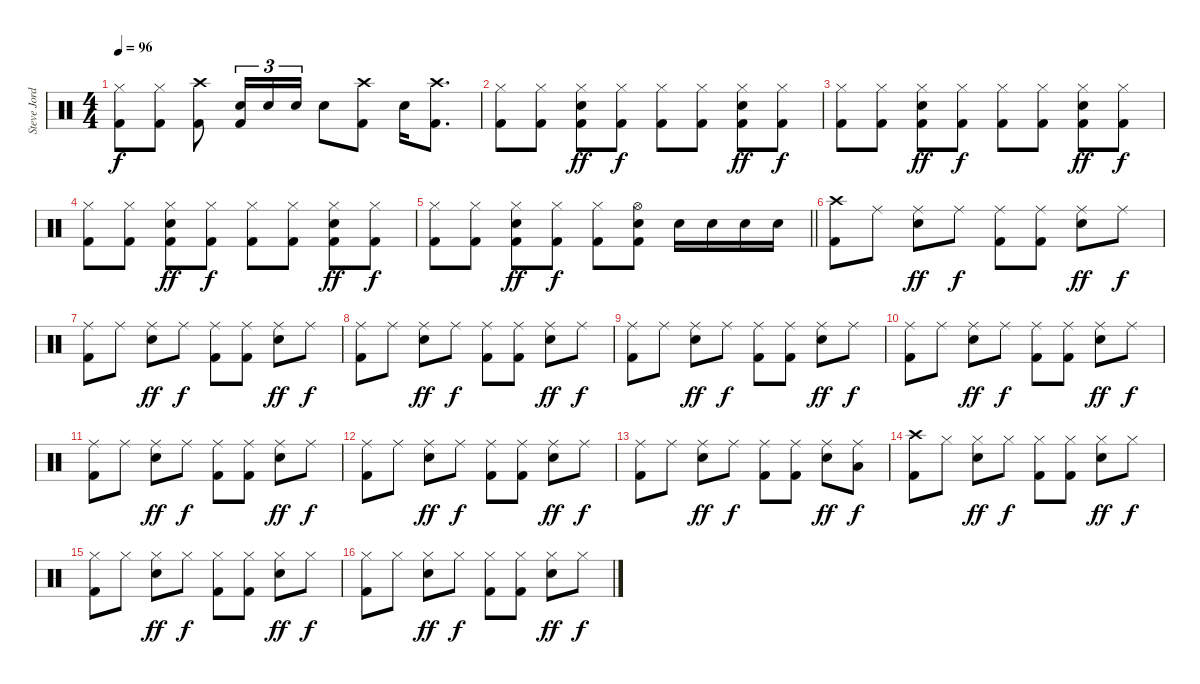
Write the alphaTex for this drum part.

\track ("Steve Jordan" "Steve Jord") {instrument percussion}
\staff {score}
\articulation defaults
\ts (4 4)
\tempo 96
\clef neutral
\ks c
("Hi-Hat (closed)" "Kick (hit) 2").8{dy f} ("Hi-Hat (closed)" "Kick (hit) 2").8 ("Crash high (hit)" "Kick (hit) 2").8 ("Snare (hit) 2" "Kick (hit) 2").16{tu (3 2)} "Snare (hit) 2".16{tu (3 2)} "Snare (hit) 2".16{tu (3 2)} "Snare (hit) 2".8 ("Crash high (hit)" "Kick (hit) 2").8 "Snare (hit) 2".16 ("Crash high (hit)" "Kick (hit) 2").8{d} |
("Hi-Hat (closed)" "Kick (hit) 2").8 ("Hi-Hat (closed)" "Kick (hit) 2").8 ("Hi-Hat (closed)" "Snare (hit) 2" "Kick (hit) 2").8{dy ff} ("Hi-Hat (closed)" "Kick (hit) 2").8{dy f} ("Hi-Hat (closed)" "Kick (hit) 2").8 ("Hi-Hat (closed)" "Kick (hit) 2").8 ("Hi-Hat (closed)" "Snare (hit) 2" "Kick (hit) 2").8{dy ff} ("Hi-Hat (closed)" "Kick (hit) 2").8{dy f} |
("Hi-Hat (closed)" "Kick (hit) 2").8 ("Hi-Hat (closed)" "Kick (hit) 2").8 ("Hi-Hat (closed)" "Snare (hit) 2" "Kick (hit) 2").8{dy ff} ("Hi-Hat (closed)" "Kick (hit) 2").8{dy f} ("Hi-Hat (closed)" "Kick (hit) 2").8 ("Hi-Hat (closed)" "Kick (hit) 2").8 ("Hi-Hat (closed)" "Snare (hit) 2" "Kick (hit) 2").8{dy ff} ("Hi-Hat (closed)" "Kick (hit) 2").8{dy f} |
("Hi-Hat (closed)" "Kick (hit) 2").8 ("Hi-Hat (closed)" "Kick (hit) 2").8 ("Hi-Hat (closed)" "Snare (hit) 2" "Kick (hit) 2").8{dy ff} ("Hi-Hat (closed)" "Kick (hit) 2").8{dy f} ("Hi-Hat (closed)" "Kick (hit) 2").8 ("Hi-Hat (closed)" "Kick (hit) 2").8 ("Hi-Hat (closed)" "Snare (hit) 2" "Kick (hit) 2").8{dy ff} ("Hi-Hat (closed)" "Kick (hit) 2").8{dy f} |
\barLineRight lightlight
("Hi-Hat (closed)" "Kick (hit) 2").8 ("Hi-Hat (closed)" "Kick (hit) 2").8 ("Hi-Hat (closed)" "Snare (hit) 2" "Kick (hit) 2").8{dy ff} ("Hi-Hat (closed)" "Kick (hit) 2").8{dy f} ("Hi-Hat (closed)" "Kick (hit) 2").8 ("Hi-Hat (open)" "Snare (hit) 2" "Kick (hit) 2").8 "Snare (hit) 2".16 "Snare (hit) 2".16 "Snare (hit) 2".16 "Snare (hit) 2".16 |
("Crash high (hit)" "Kick (hit) 2").8 "Ride (middle)".8 ("Ride (middle)" "Snare (hit) 2").8{dy ff} "Ride (middle)".8{dy f} ("Ride (middle)" "Kick (hit) 2").8 ("Ride (middle)" "Kick (hit) 2").8 ("Ride (middle)" "Snare (hit) 2").8{dy ff} "Ride (middle)".8{dy f} |
("Ride (middle)" "Kick (hit) 2").8 "Ride (middle)".8 ("Ride (middle)" "Snare (hit) 2").8{dy ff} "Ride (middle)".8{dy f} ("Ride (middle)" "Kick (hit) 2").8 ("Ride (middle)" "Kick (hit) 2").8 ("Ride (middle)" "Snare (hit) 2").8{dy ff} "Ride (middle)".8{dy f} |
("Ride (middle)" "Kick (hit) 2").8 "Ride (middle)".8 ("Ride (middle)" "Snare (hit) 2").8{dy ff} "Ride (middle)".8{dy f} ("Ride (middle)" "Kick (hit) 2").8 ("Ride (middle)" "Kick (hit) 2").8 ("Ride (middle)" "Snare (hit) 2").8{dy ff} "Ride (middle)".8{dy f} |
("Ride (middle)" "Kick (hit) 2").8 "Ride (middle)".8 ("Ride (middle)" "Snare (hit) 2").8{dy ff} "Ride (middle)".8{dy f} ("Ride (middle)" "Kick (hit) 2").8 ("Ride (middle)" "Kick (hit) 2").8 ("Ride (middle)" "Snare (hit) 2").8{dy ff} "Ride (middle)".8{dy f} |
("Ride (middle)" "Kick (hit) 2").8 "Ride (middle)".8 ("Ride (middle)" "Snare (hit) 2").8{dy ff} "Ride (middle)".8{dy f} ("Ride (middle)" "Kick (hit) 2").8 ("Ride (middle)" "Kick (hit) 2").8 ("Ride (middle)" "Snare (hit) 2").8{dy ff} "Ride (middle)".8{dy f} |
("Ride (middle)" "Kick (hit) 2").8 "Ride (middle)".8 ("Ride (middle)" "Snare (hit) 2").8{dy ff} "Ride (middle)".8{dy f} ("Ride (middle)" "Kick (hit) 2").8 ("Ride (middle)" "Kick (hit) 2").8 ("Ride (middle)" "Snare (hit) 2").8{dy ff} "Ride (middle)".8{dy f} |
("Ride (middle)" "Kick (hit) 2").8 "Ride (middle)".8 ("Ride (middle)" "Snare (hit) 2").8{dy ff} "Ride (middle)".8{dy f} ("Ride (middle)" "Kick (hit) 2").8 ("Ride (middle)" "Kick (hit) 2").8 ("Ride (middle)" "Snare (hit) 2").8{dy ff} "Ride (middle)".8{dy f} |
("Ride (middle)" "Kick (hit) 2").8 "Ride (middle)".8 ("Ride (middle)" "Snare (hit) 2").8{dy ff} "Ride (middle)".8{dy f} ("Ride (middle)" "Kick (hit) 2").8 ("Ride (middle)" "Kick (hit) 2").8 ("Ride (middle)" "Snare (hit) 2").8{dy ff} ("Ride (middle)" "Low Tom (hit)").8{dy f} |
("Crash high (hit)" "Kick (hit) 2").8 "Hi-Hat (closed)".8 ("Hi-Hat (closed)" "Snare (hit) 2").8{dy ff} "Hi-Hat (closed)".8{dy f} ("Hi-Hat (closed)" "Kick (hit) 2").8 ("Hi-Hat (closed)" "Kick (hit) 2").8 ("Hi-Hat (closed)" "Snare (hit) 2").8{dy ff} "Hi-Hat (closed)".8{dy f} |
("Hi-Hat (closed)" "Kick (hit) 2").8 "Hi-Hat (closed)".8 ("Hi-Hat (closed)" "Snare (hit) 2").8{dy ff} "Hi-Hat (closed)".8{dy f} ("Hi-Hat (closed)" "Kick (hit) 2").8 ("Hi-Hat (closed)" "Kick (hit) 2").8 ("Hi-Hat (closed)" "Snare (hit) 2").8{dy ff} "Hi-Hat (closed)".8{dy f} |
("Hi-Hat (closed)" "Kick (hit) 2").8 "Hi-Hat (closed)".8 ("Hi-Hat (closed)" "Snare (hit) 2").8{dy ff} "Hi-Hat (closed)".8{dy f} ("Hi-Hat (closed)" "Kick (hit) 2").8 ("Hi-Hat (closed)" "Kick (hit) 2").8 ("Hi-Hat (closed)" "Snare (hit) 2").8{dy ff} "Hi-Hat (closed)".8{dy f}
